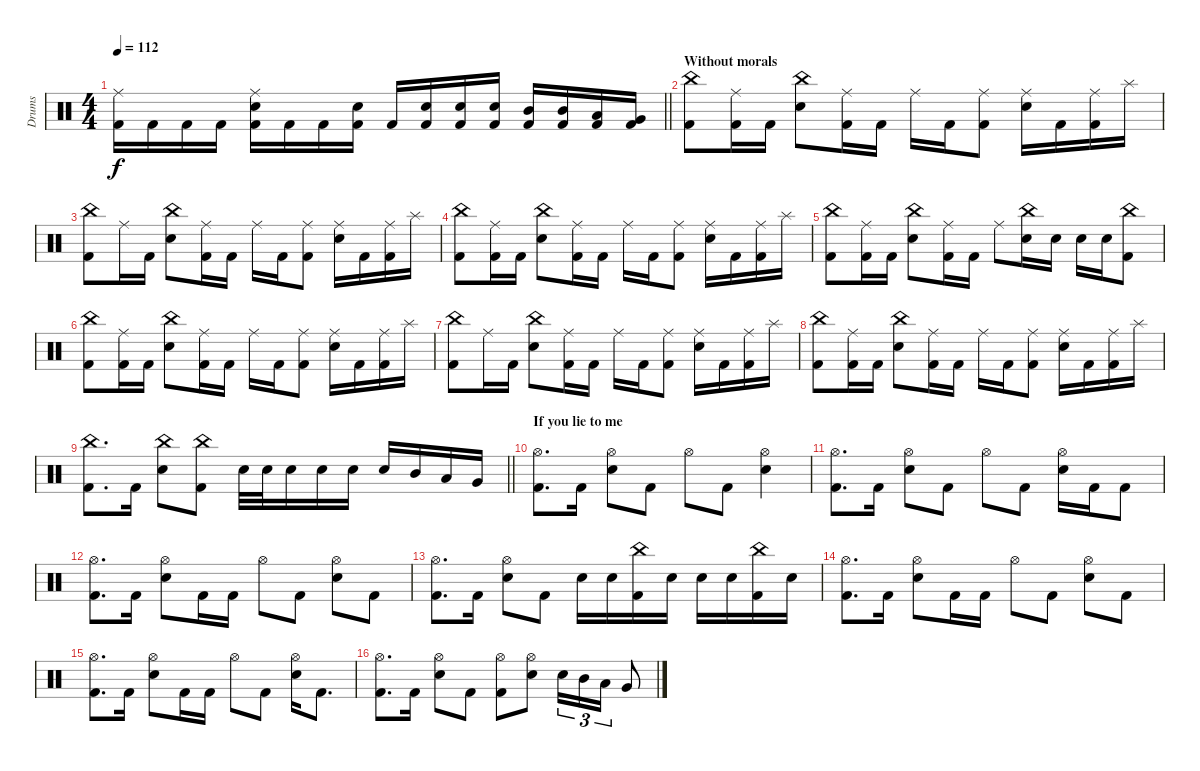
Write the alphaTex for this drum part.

\track ("Drums" "Drums") {instrument percussion}
\staff {score}
\articulation defaults
\ts (4 4)
\tempo 112
\clef neutral
\barLineRight lightlight
\ks c
("Ride (middle)" "Kick (hit) 2").16{dy f} "Kick (hit) 2".16 "Kick (hit) 2".16 "Kick (hit) 2".16 ("Ride (middle)" "Electric Snare (hit)" "Kick (hit) 2").16 "Kick (hit) 2".16 "Kick (hit) 2".16 ("Electric Snare (hit)" "Kick (hit) 2").16 "Kick (hit) 2".16 ("Electric Snare (hit)" "Kick (hit) 2").16 ("Electric Snare (hit)" "Kick (hit) 2").16 ("Electric Snare (hit)" "Kick (hit) 2").16 ("Mid Tom (hit)" "Kick (hit) 2").16 ("Mid Tom (hit)" "Kick (hit) 2").16 ("Low Tom (hit)" "Kick (hit) 2").16 ("Very Low Tom (hit)" "Kick (hit) 2").16 |
\section ("" "Without morals")
("China (hit)" "Kick (hit) 2").8 ("Ride (middle)" "Kick (hit) 2").16 "Kick (hit) 2".16 ("China (hit)" "Electric Snare (hit)").8 ("Ride (middle)" "Kick (hit) 2").16 "Kick (hit) 2".16 "Ride (middle)".16 "Kick (hit) 2".16 ("Ride (middle)" "Kick (hit) 2").8 ("Ride (middle)" "Electric Snare (hit)").16 "Kick (hit) 2".16 ("Ride (middle)" "Kick (hit) 2").16 "Splash (hit)".16 |
("China (hit)" "Kick (hit) 2").8 "Ride (middle)".16 "Kick (hit) 2".16 ("China (hit)" "Electric Snare (hit)").8 ("Ride (middle)" "Kick (hit) 2").16 "Kick (hit) 2".16 "Ride (middle)".16 "Kick (hit) 2".16 ("Ride (middle)" "Kick (hit) 2").8 ("Ride (middle)" "Electric Snare (hit)").16 "Kick (hit) 2".16 ("Ride (middle)" "Kick (hit) 2").16 "Splash (hit)".16 |
("China (hit)" "Kick (hit) 2").8 ("Ride (middle)" "Kick (hit) 2").16 "Kick (hit) 2".16 ("China (hit)" "Electric Snare (hit)").8 ("Ride (middle)" "Kick (hit) 2").16 "Kick (hit) 2".16 "Ride (middle)".16 "Kick (hit) 2".16 ("Ride (middle)" "Kick (hit) 2").8 ("Ride (middle)" "Electric Snare (hit)").16 "Kick (hit) 2".16 ("Ride (middle)" "Kick (hit) 2").16 "Splash (hit)".16 |
("China (hit)" "Kick (hit) 2").8 ("Ride (middle)" "Kick (hit) 2").16 "Kick (hit) 2".16 ("China (hit)" "Electric Snare (hit)").8 ("Ride (middle)" "Kick (hit) 2").16 "Kick (hit) 2".16 "Ride (middle)".8 ("China (hit)" "Electric Snare (hit)").16 "Electric Snare (hit)".16 "Electric Snare (hit)".16 "Electric Snare (hit)".16 ("China (hit)" "Kick (hit) 2").8 |
("China (hit)" "Kick (hit) 2").8 ("Ride (middle)" "Kick (hit) 2").16 "Kick (hit) 2".16 ("China (hit)" "Electric Snare (hit)").8 ("Ride (middle)" "Kick (hit) 2").16 "Kick (hit) 2".16 "Ride (middle)".16 "Kick (hit) 2".16 ("Ride (middle)" "Kick (hit) 2").8 ("Ride (middle)" "Electric Snare (hit)").16 "Kick (hit) 2".16 ("Ride (middle)" "Kick (hit) 2").16 "Splash (hit)".16 |
("China (hit)" "Kick (hit) 2").8 "Ride (middle)".16 "Kick (hit) 2".16 ("China (hit)" "Electric Snare (hit)").8 ("Ride (middle)" "Kick (hit) 2").16 "Kick (hit) 2".16 "Ride (middle)".16 "Kick (hit) 2".16 ("Ride (middle)" "Kick (hit) 2").8 ("Ride (middle)" "Electric Snare (hit)").16 "Kick (hit) 2".16 ("Ride (middle)" "Kick (hit) 2").16 "Splash (hit)".16 |
("China (hit)" "Kick (hit) 2").8 ("Ride (middle)" "Kick (hit) 2").16 "Kick (hit) 2".16 ("China (hit)" "Electric Snare (hit)").8 ("Ride (middle)" "Kick (hit) 2").16 "Kick (hit) 2".16 "Ride (middle)".16 "Kick (hit) 2".16 ("Ride (middle)" "Kick (hit) 2").8 ("Ride (middle)" "Electric Snare (hit)").16 "Kick (hit) 2".16 ("Ride (middle)" "Kick (hit) 2").16 "Splash (hit)".16 |
\barLineRight lightlight
("China (hit)" "Kick (hit) 2").8{d} "Kick (hit) 2".16 ("China (hit)" "Electric Snare (hit)").8 ("China (hit)" "Kick (hit) 2").8 "Electric Snare (hit)".32 "Electric Snare (hit)".32 "Electric Snare (hit)".16 "Electric Snare (hit)".16 "Electric Snare (hit)".16 "Electric Snare (hit)".16 "Mid Tom (hit)".16 "Low Tom (hit)".16 "Very Low Tom (hit)".16 |
\section ("" "If you lie to me")
("Hi-Hat (open)" "Kick (hit) 2").8{d} "Kick (hit) 2".16 ("Hi-Hat (open)" "Electric Snare (hit)").8 "Kick (hit) 2".8 "Hi-Hat (open)".8 "Kick (hit) 2".8 ("Hi-Hat (open)" "Electric Snare (hit)").4 |
("Hi-Hat (open)" "Kick (hit) 2").8{d} "Kick (hit) 2".16 ("Hi-Hat (open)" "Electric Snare (hit)").8 "Kick (hit) 2".8 "Hi-Hat (open)".8 "Kick (hit) 2".8 ("Hi-Hat (open)" "Electric Snare (hit)").16 "Kick (hit) 2".16 "Kick (hit) 2".8 |
("Hi-Hat (open)" "Kick (hit) 2").8{d} "Kick (hit) 2".16 ("Hi-Hat (open)" "Electric Snare (hit)").8 "Kick (hit) 2".16 "Kick (hit) 2".16 "Hi-Hat (open)".8 "Kick (hit) 2".8 ("Hi-Hat (open)" "Electric Snare (hit)").8 "Kick (hit) 2".8 |
("Hi-Hat (open)" "Kick (hit) 2").8{d} "Kick (hit) 2".16 ("Hi-Hat (open)" "Electric Snare (hit)").8 "Kick (hit) 2".8 "Electric Snare (hit)".16 "Electric Snare (hit)".16 ("China (hit)" "Kick (hit) 2").16 "Electric Snare (hit)".16 "Electric Snare (hit)".16 "Electric Snare (hit)".16 ("China (hit)" "Kick (hit) 2").16 "Electric Snare (hit)".16 |
("Hi-Hat (open)" "Kick (hit) 2").8{d} "Kick (hit) 2".16 ("Hi-Hat (open)" "Electric Snare (hit)").8 "Kick (hit) 2".16 "Kick (hit) 2".16 "Hi-Hat (open)".8 "Kick (hit) 2".8 ("Hi-Hat (open)" "Electric Snare (hit)").8 "Kick (hit) 2".8 |
("Hi-Hat (open)" "Kick (hit) 2").8{d} "Kick (hit) 2".16 ("Hi-Hat (open)" "Electric Snare (hit)").8 "Kick (hit) 2".16 "Kick (hit) 2".16 "Hi-Hat (open)".8 "Kick (hit) 2".8 ("Hi-Hat (open)" "Electric Snare (hit)").16 "Kick (hit) 2".8{d} |
("Hi-Hat (open)" "Kick (hit) 2").8{d} "Kick (hit) 2".16 ("Hi-Hat (open)" "Electric Snare (hit)").8 "Kick (hit) 2".8 ("Hi-Hat (open)" "Kick (hit) 2").8 ("Hi-Hat (open)" "Electric Snare (hit)").8 "Electric Snare (hit)".16{tu (3 2)} "Mid Tom (hit)".16{tu (3 2)} "Low Tom (hit)".16{tu (3 2)} "Very Low Tom (hit)".8
